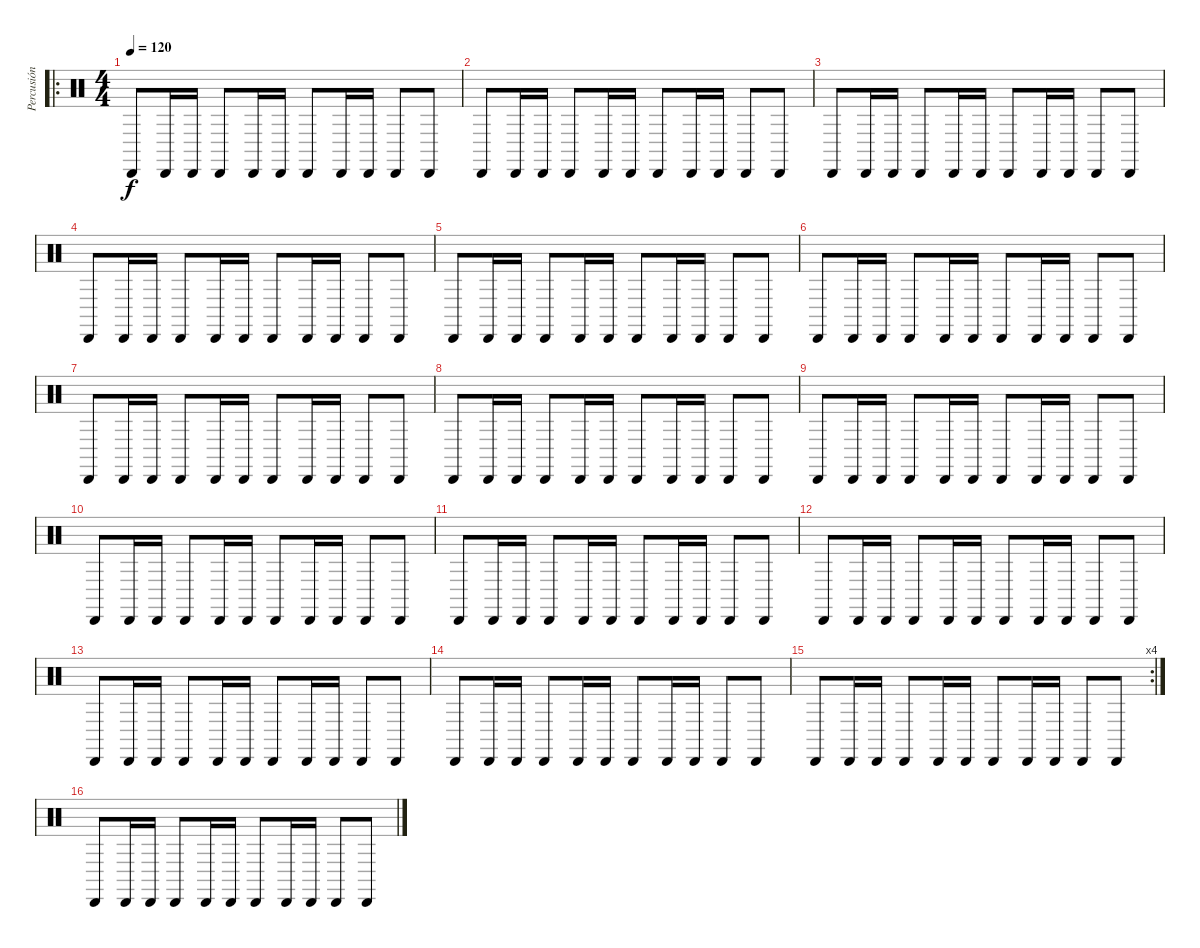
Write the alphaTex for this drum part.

\track ("Percusión 2" "Percusión ") {instrument percussion}
\staff {score}
\articulation defaults
\ro
\ts (4 4)
\tempo 120
\clef neutral
\ks c "Cabasa (hit)".8{dy f} "Cabasa (hit)".16 "Cabasa (hit)".16 "Cabasa (hit)".8 "Cabasa (hit)".16 "Cabasa (hit)".16 "Cabasa (hit)".8 "Cabasa (hit)".16 "Cabasa (hit)".16 "Cabasa (hit)".8 "Cabasa (hit)".8
|
"Cabasa (hit)".8 "Cabasa (hit)".16 "Cabasa (hit)".16 "Cabasa (hit)".8 "Cabasa (hit)".16 "Cabasa (hit)".16 "Cabasa (hit)".8 "Cabasa (hit)".16 "Cabasa (hit)".16 "Cabasa (hit)".8 "Cabasa (hit)".8 |
"Cabasa (hit)".8 "Cabasa (hit)".16 "Cabasa (hit)".16 "Cabasa (hit)".8 "Cabasa (hit)".16 "Cabasa (hit)".16 "Cabasa (hit)".8 "Cabasa (hit)".16 "Cabasa (hit)".16 "Cabasa (hit)".8 "Cabasa (hit)".8 |
"Cabasa (hit)".8 "Cabasa (hit)".16 "Cabasa (hit)".16 "Cabasa (hit)".8 "Cabasa (hit)".16 "Cabasa (hit)".16 "Cabasa (hit)".8 "Cabasa (hit)".16 "Cabasa (hit)".16 "Cabasa (hit)".8 "Cabasa (hit)".8 |
"Cabasa (hit)".8 "Cabasa (hit)".16 "Cabasa (hit)".16 "Cabasa (hit)".8 "Cabasa (hit)".16 "Cabasa (hit)".16 "Cabasa (hit)".8 "Cabasa (hit)".16 "Cabasa (hit)".16 "Cabasa (hit)".8 "Cabasa (hit)".8 |
"Cabasa (hit)".8 "Cabasa (hit)".16 "Cabasa (hit)".16 "Cabasa (hit)".8 "Cabasa (hit)".16 "Cabasa (hit)".16 "Cabasa (hit)".8 "Cabasa (hit)".16 "Cabasa (hit)".16 "Cabasa (hit)".8 "Cabasa (hit)".8 |
"Cabasa (hit)".8 "Cabasa (hit)".16 "Cabasa (hit)".16 "Cabasa (hit)".8 "Cabasa (hit)".16 "Cabasa (hit)".16 "Cabasa (hit)".8 "Cabasa (hit)".16 "Cabasa (hit)".16 "Cabasa (hit)".8 "Cabasa (hit)".8 |
"Cabasa (hit)".8 "Cabasa (hit)".16 "Cabasa (hit)".16 "Cabasa (hit)".8 "Cabasa (hit)".16 "Cabasa (hit)".16 "Cabasa (hit)".8 "Cabasa (hit)".16 "Cabasa (hit)".16 "Cabasa (hit)".8 "Cabasa (hit)".8 |
"Cabasa (hit)".8 "Cabasa (hit)".16 "Cabasa (hit)".16 "Cabasa (hit)".8 "Cabasa (hit)".16 "Cabasa (hit)".16 "Cabasa (hit)".8 "Cabasa (hit)".16 "Cabasa (hit)".16 "Cabasa (hit)".8 "Cabasa (hit)".8 |
"Cabasa (hit)".8 "Cabasa (hit)".16 "Cabasa (hit)".16 "Cabasa (hit)".8 "Cabasa (hit)".16 "Cabasa (hit)".16 "Cabasa (hit)".8 "Cabasa (hit)".16 "Cabasa (hit)".16 "Cabasa (hit)".8 "Cabasa (hit)".8 |
"Cabasa (hit)".8 "Cabasa (hit)".16 "Cabasa (hit)".16 "Cabasa (hit)".8 "Cabasa (hit)".16 "Cabasa (hit)".16 "Cabasa (hit)".8 "Cabasa (hit)".16 "Cabasa (hit)".16 "Cabasa (hit)".8 "Cabasa (hit)".8 |
"Cabasa (hit)".8 "Cabasa (hit)".16 "Cabasa (hit)".16 "Cabasa (hit)".8 "Cabasa (hit)".16 "Cabasa (hit)".16 "Cabasa (hit)".8 "Cabasa (hit)".16 "Cabasa (hit)".16 "Cabasa (hit)".8 "Cabasa (hit)".8 |
"Cabasa (hit)".8 "Cabasa (hit)".16 "Cabasa (hit)".16 "Cabasa (hit)".8 "Cabasa (hit)".16 "Cabasa (hit)".16 "Cabasa (hit)".8 "Cabasa (hit)".16 "Cabasa (hit)".16 "Cabasa (hit)".8 "Cabasa (hit)".8 |
"Cabasa (hit)".8 "Cabasa (hit)".16 "Cabasa (hit)".16 "Cabasa (hit)".8 "Cabasa (hit)".16 "Cabasa (hit)".16 "Cabasa (hit)".8 "Cabasa (hit)".16 "Cabasa (hit)".16 "Cabasa (hit)".8 "Cabasa (hit)".8 |
\rc 4 "Cabasa (hit)".8 "Cabasa (hit)".16 "Cabasa (hit)".16 "Cabasa (hit)".8 "Cabasa (hit)".16 "Cabasa (hit)".16 "Cabasa (hit)".8 "Cabasa (hit)".16 "Cabasa (hit)".16 "Cabasa (hit)".8 "Cabasa (hit)".8
|
"Cabasa (hit)".8 "Cabasa (hit)".16 "Cabasa (hit)".16 "Cabasa (hit)".8 "Cabasa (hit)".16 "Cabasa (hit)".16 "Cabasa (hit)".8 "Cabasa (hit)".16 "Cabasa (hit)".16 "Cabasa (hit)".8 "Cabasa (hit)".8
